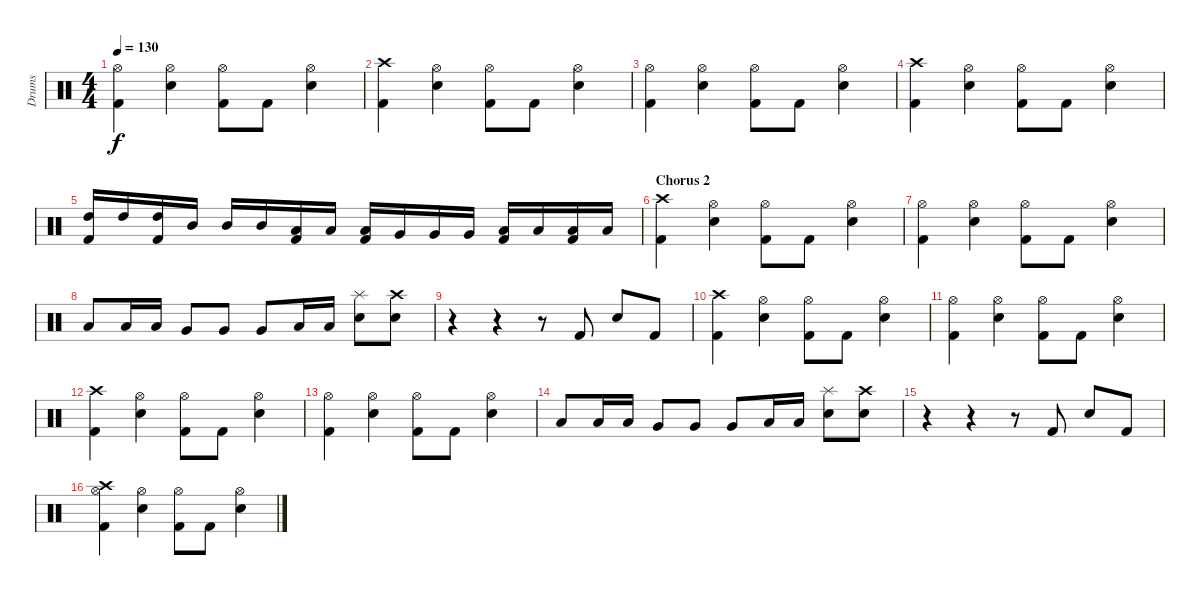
\track ("Drums" "Drums") {instrument percussion}
\staff {score}
\articulation defaults
\ts (4 4)
\tempo 130
\clef neutral
\ks c
("Kick (hit) 2" "Hi-Hat (open)").4{dy f} ("Snare (hit) 2" "Hi-Hat (open)").4 ("Kick (hit) 2" "Hi-Hat (open)").8 "Kick (hit) 2".8 ("Snare (hit) 2" "Hi-Hat (open)").4 |
("Kick (hit) 2" "Crash high (hit)").4 ("Snare (hit) 2" "Hi-Hat (open)").4 ("Kick (hit) 2" "Hi-Hat (open)").8 "Kick (hit) 2".8 ("Snare (hit) 2" "Hi-Hat (open)").4 |
("Kick (hit) 2" "Hi-Hat (open)").4 ("Snare (hit) 2" "Hi-Hat (open)").4 ("Kick (hit) 2" "Hi-Hat (open)").8 "Kick (hit) 2".8 ("Snare (hit) 2" "Hi-Hat (open)").4 |
("Kick (hit) 2" "Crash high (hit)").4 ("Snare (hit) 2" "Hi-Hat (open)").4 ("Kick (hit) 2" "Hi-Hat (open)").8 "Kick (hit) 2".8 ("Snare (hit) 2" "Hi-Hat (open)").4 |
("High Tom (hit)" "Kick (hit) 2").16 "High Tom (hit)".16 ("High Tom (hit)" "Kick (hit) 2").16 "Mid Tom (hit)".16 "Mid Tom (hit)".16 "Mid Tom (hit)".16 ("Low Tom (hit)" "Kick (hit) 2").16 "Low Tom (hit)".16 ("Low Tom (hit)" "Kick (hit) 2").16 "Very Low Tom (hit)".16 "Very Low Tom (hit)".16 "Very Low Tom (hit)".16 ("Low Floor Tom (hit)" "Kick (hit) 2").16 "Low Floor Tom (hit)".16 ("Low Floor Tom (hit)" "Kick (hit) 2").16 "Low Floor Tom (hit)".16 |
\section ("" "Chorus 2")
("Kick (hit) 2" "Crash high (hit)").4 ("Snare (hit) 2" "Hi-Hat (open)").4 ("Kick (hit) 2" "Hi-Hat (open)").8 "Kick (hit) 2".8 ("Snare (hit) 2" "Hi-Hat (open)").4 |
("Kick (hit) 2" "Hi-Hat (open)").4 ("Snare (hit) 2" "Hi-Hat (open)").4 ("Kick (hit) 2" "Hi-Hat (open)").8 "Kick (hit) 2".8 ("Snare (hit) 2" "Hi-Hat (open)").4 |
"Low Tom (hit)".8 "Low Tom (hit)".16 "Low Tom (hit)".16 "Very Low Tom (hit)".8 "Very Low Tom (hit)".8 "Very Low Tom (hit)".8 "Low Floor Tom (hit)".16 "Low Floor Tom (hit)".16 ("Splash (hit)" "Snare (hit) 2").8 ("Crash high (hit)" "Snare (hit) 2").8 |
r.4 r.4 r.8 "Kick (hit) 2".8 "Snare (hit) 2".8 "Kick (hit) 2".8 |
("Kick (hit) 2" "Crash high (hit)").4 ("Snare (hit) 2" "Hi-Hat (open)").4 ("Kick (hit) 2" "Hi-Hat (open)").8 "Kick (hit) 2".8 ("Snare (hit) 2" "Hi-Hat (open)").4 |
("Kick (hit) 2" "Hi-Hat (open)").4 ("Snare (hit) 2" "Hi-Hat (open)").4 ("Kick (hit) 2" "Hi-Hat (open)").8 "Kick (hit) 2".8 ("Snare (hit) 2" "Hi-Hat (open)").4 |
("Kick (hit) 2" "Crash high (hit)").4 ("Snare (hit) 2" "Hi-Hat (open)").4 ("Kick (hit) 2" "Hi-Hat (open)").8 "Kick (hit) 2".8 ("Snare (hit) 2" "Hi-Hat (open)").4 |
("Kick (hit) 2" "Hi-Hat (open)").4 ("Snare (hit) 2" "Hi-Hat (open)").4 ("Kick (hit) 2" "Hi-Hat (open)").8 "Kick (hit) 2".8 ("Snare (hit) 2" "Hi-Hat (open)").4 |
"Low Tom (hit)".8 "Low Tom (hit)".16 "Low Tom (hit)".16 "Very Low Tom (hit)".8 "Very Low Tom (hit)".8 "Very Low Tom (hit)".8 "Low Floor Tom (hit)".16 "Low Floor Tom (hit)".16 ("Splash (hit)" "Snare (hit) 2").8 ("Crash high (hit)" "Snare (hit) 2").8 |
r.4 r.4 r.8 "Kick (hit) 2".8 "Snare (hit) 2".8 "Kick (hit) 2".8 |
("Kick (hit) 2" "Hi-Hat (open)" "Crash high (hit)").4 ("Snare (hit) 2" "Hi-Hat (open)").4 ("Kick (hit) 2" "Hi-Hat (open)").8 "Kick (hit) 2".8 ("Snare (hit) 2" "Hi-Hat (open)").4
